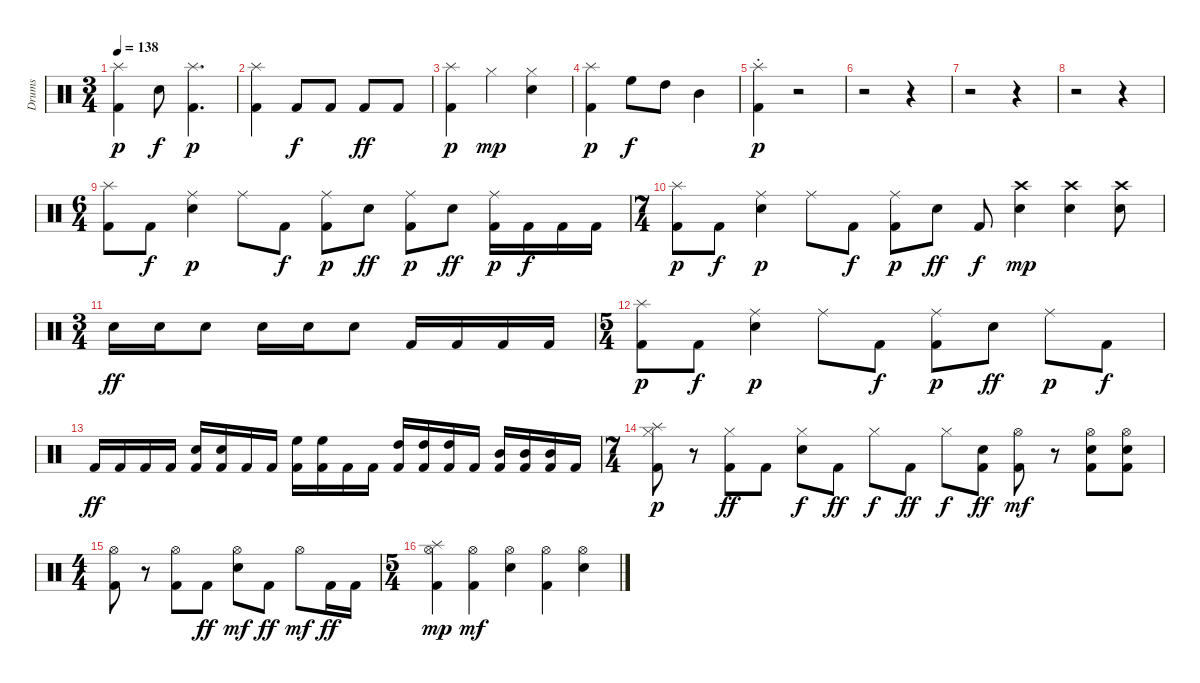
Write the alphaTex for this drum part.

\track ("Drums" "Drums") {instrument percussion}
\staff {score}
\articulation defaults
\ts (3 4)
\tempo 138
\clef neutral
\ks c
("Kick (hit) 2" "Splash (hit)").4{dy p} "Electric Snare (hit)".8{dy f} ("Kick (hit) 2" "Splash (hit)").4{d dy p} |
("Kick (hit) 2" "Splash (hit)").4 "Kick (hit) 2".8{dy f} "Kick (hit) 2".8 "Kick (hit) 2".8{dy ff} "Kick (hit) 2".8 |
("Kick (hit) 2" "Splash (hit)").4{dy p} "Hi-Hat (closed)".4{dy mp} ("Electric Snare (hit)" "Hi-Hat (closed)").4 |
("Kick (hit) 2" "Splash (hit)").4{dy p} "High Floor Tom (hit)".8{dy f} "High Tom (hit)".8 "Mid Tom (hit)".4 |
("Kick (hit) 2" "Splash (hit)"{st}).4{dy p} r.2 |
r.2 r.4 |
r.2 r.4 |
r.2 r.4 |
\ts (6 4)
("Kick (hit) 2" "Splash (hit)").8 "Kick (hit) 2".8{dy f} ("Electric Snare (hit)" "Ride (middle)").4{dy p} "Ride (middle)".8 "Kick (hit) 2".8{dy f} ("Kick (hit) 2" "Ride (middle)").8{dy p} "Electric Snare (hit)".8{dy ff} ("Kick (hit) 2" "Ride (middle)").8{dy p} "Electric Snare (hit)".8{dy ff} ("Kick (hit) 2" "Ride (middle)").16{dy p} "Kick (hit) 2".16{dy f} "Kick (hit) 2".16 "Kick (hit) 2".16 |
\ts (7 4)
("Kick (hit) 2" "Splash (hit)").8{dy p} "Kick (hit) 2".8{dy f} ("Electric Snare (hit)" "Ride (middle)").4{dy p} "Ride (middle)".8 "Kick (hit) 2".8{dy f} ("Kick (hit) 2" "Ride (middle)").8{dy p} "Electric Snare (hit)".8{dy ff} "Kick (hit) 2".8{dy f} ("Electric Snare (hit)" "Crash high (hit)").4{dy mp} ("Electric Snare (hit)" "Crash high (hit)").4 ("Electric Snare (hit)" "Crash high (hit)").8 |
\ts (3 4)
"Electric Snare (hit)".16{dy ff} "Electric Snare (hit)".16 "Electric Snare (hit)".8 "Electric Snare (hit)".16 "Electric Snare (hit)".16 "Electric Snare (hit)".8 "Kick (hit) 2".16 "Kick (hit) 2".16 "Kick (hit) 2".16 "Kick (hit) 2".16 |
\ts (5 4)
("Kick (hit) 2" "Splash (hit)").8{dy p} "Kick (hit) 2".8{dy f} ("Electric Snare (hit)" "Ride (middle)").4{dy p} "Ride (middle)".8 "Kick (hit) 2".8{dy f} ("Kick (hit) 2" "Ride (middle)").8{dy p} "Electric Snare (hit)".8{dy ff} "Ride (middle)".8{dy p} "Kick (hit) 2".8{dy f} |
"Kick (hit) 2".16{dy ff} "Kick (hit) 2".16 "Kick (hit) 2".16 "Kick (hit) 2".16 ("Kick (hit) 2" "Electric Snare (hit)").16 ("Kick (hit) 2" "Electric Snare (hit)").16 "Kick (hit) 2".16 "Kick (hit) 2".16 ("Kick (hit) 2" "High Floor Tom (hit)").16 ("Kick (hit) 2" "High Floor Tom (hit)").16 "Kick (hit) 2".16 "Kick (hit) 2".16 ("Kick (hit) 2" "High Tom (hit)").16 ("Kick (hit) 2" "High Tom (hit)").16 ("Kick (hit) 2" "High Tom (hit)").16 "Kick (hit) 2".16 ("Kick (hit) 2" "Mid Tom (hit)").16 ("Kick (hit) 2" "Mid Tom (hit)").16 ("Kick (hit) 2" "Mid Tom (hit)").16 "Kick (hit) 2".16 |
\ts (7 4)
("Kick (hit) 2" "Hi-Hat (closed)" "Splash (hit)").8{dy p} r.8 ("Kick (hit) 2" "Hi-Hat (closed)").8{dy ff} "Kick (hit) 2".8 ("Electric Snare (hit)" "Hi-Hat (closed)").8{dy f} "Kick (hit) 2".8{dy ff} "Hi-Hat (closed)".8{dy f} "Kick (hit) 2".8{dy ff} "Hi-Hat (closed)".8{dy f} ("Kick (hit) 2" "Electric Snare (hit)").8{dy ff} ("Kick (hit) 2" "Hi-Hat (open)").8{dy mf} r.8 ("Kick (hit) 2" "Electric Snare (hit)" "Hi-Hat (open)").8 ("Kick (hit) 2" "Electric Snare (hit)" "Hi-Hat (open)").8 |
\ts (4 4)
("Kick (hit) 2" "Hi-Hat (open)").8 r.8 ("Kick (hit) 2" "Hi-Hat (open)").8 "Kick (hit) 2".8{dy ff} ("Electric Snare (hit)" "Hi-Hat (open)").8{dy mf} "Kick (hit) 2".8{dy ff} "Hi-Hat (open)".8{dy mf} "Kick (hit) 2".16{dy ff} "Kick (hit) 2".16 |
\ts (5 4)
("Kick (hit) 2" "Hi-Hat (open)" "Splash (hit)").4{dy mp} ("Kick (hit) 2" "Hi-Hat (open)").4{dy mf} ("Electric Snare (hit)" "Hi-Hat (open)").4 ("Kick (hit) 2" "Hi-Hat (open)").4 ("Electric Snare (hit)" "Hi-Hat (open)").4
